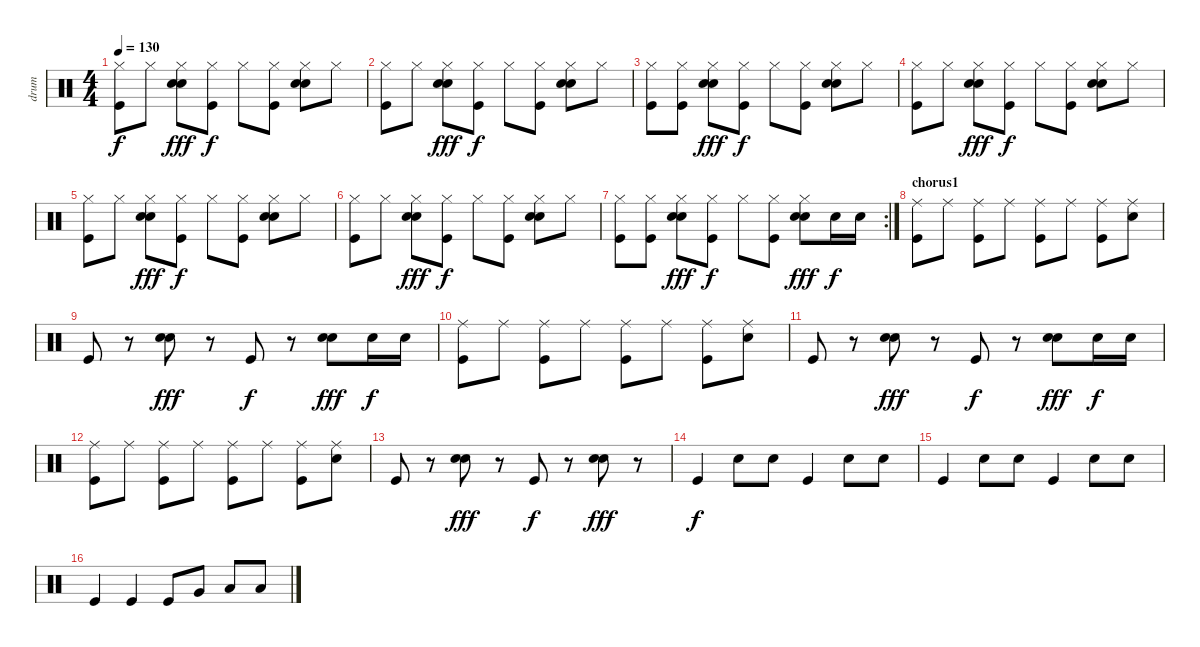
\track ("drum" "drum") {instrument percussion}
\staff {score}
\articulation defaults
\ts (4 4)
\tempo 130
\clef neutral
\ks c
("Hi-Hat (closed)" "Kick (hit)").8{dy f} "Hi-Hat (closed)".8 ("Hi-Hat (closed)" "Snare (hit) 2" "Snare (hit) 2").8{dy fff} ("Hi-Hat (closed)" "Kick (hit)").8{dy f} "Hi-Hat (closed)".8 ("Hi-Hat (closed)" "Kick (hit)").8 ("Hi-Hat (closed)" "Snare (hit) 2" "Snare (hit) 2").8 "Hi-Hat (closed)".8 |
("Hi-Hat (closed)" "Kick (hit)").8 "Hi-Hat (closed)".8 ("Hi-Hat (closed)" "Snare (hit) 2" "Snare (hit) 2").8{dy fff} ("Hi-Hat (closed)" "Kick (hit)").8{dy f} "Hi-Hat (closed)".8 ("Hi-Hat (closed)" "Kick (hit)").8 ("Hi-Hat (closed)" "Snare (hit) 2" "Snare (hit) 2").8 "Hi-Hat (closed)".8 |
("Hi-Hat (closed)" "Kick (hit)").8 ("Hi-Hat (closed)" "Kick (hit)").8 ("Hi-Hat (closed)" "Snare (hit) 2" "Snare (hit) 2").8{dy fff} ("Hi-Hat (closed)" "Kick (hit)").8{dy f} "Hi-Hat (closed)".8 ("Hi-Hat (closed)" "Kick (hit)").8 ("Hi-Hat (closed)" "Snare (hit) 2" "Snare (hit) 2").8 "Hi-Hat (closed)".8 |
("Hi-Hat (closed)" "Kick (hit)").8 "Hi-Hat (closed)".8 ("Hi-Hat (closed)" "Snare (hit) 2" "Snare (hit) 2").8{dy fff} ("Hi-Hat (closed)" "Kick (hit)").8{dy f} "Hi-Hat (closed)".8 ("Hi-Hat (closed)" "Kick (hit)").8 ("Hi-Hat (closed)" "Snare (hit) 2" "Snare (hit) 2").8 "Hi-Hat (closed)".8 |
("Hi-Hat (closed)" "Kick (hit)").8 "Hi-Hat (closed)".8 ("Hi-Hat (closed)" "Snare (hit) 2" "Snare (hit) 2").8{dy fff} ("Hi-Hat (closed)" "Kick (hit)").8{dy f} "Hi-Hat (closed)".8 ("Hi-Hat (closed)" "Kick (hit)").8 ("Hi-Hat (closed)" "Snare (hit) 2" "Snare (hit) 2").8 "Hi-Hat (closed)".8 |
("Hi-Hat (closed)" "Kick (hit)").8 "Hi-Hat (closed)".8 ("Hi-Hat (closed)" "Snare (hit) 2" "Snare (hit) 2").8{dy fff} ("Hi-Hat (closed)" "Kick (hit)").8{dy f} "Hi-Hat (closed)".8 ("Hi-Hat (closed)" "Kick (hit)").8 ("Hi-Hat (closed)" "Snare (hit) 2" "Snare (hit) 2").8 "Hi-Hat (closed)".8 |
\rc 2
("Hi-Hat (closed)" "Kick (hit)").8 ("Hi-Hat (closed)" "Kick (hit)").8 ("Hi-Hat (closed)" "Snare (hit) 2" "Snare (hit) 2").8{dy fff} ("Hi-Hat (closed)" "Kick (hit)").8{dy f} "Hi-Hat (closed)".8 ("Hi-Hat (closed)" "Kick (hit)").8 ("Hi-Hat (closed)" "Snare (hit) 2" "Snare (hit) 2").8{dy fff} "Snare (hit) 2".16{dy f} "Snare (hit) 2".16 |
\section ("" "chorus1")
("Ride (middle)" "Kick (hit)").8 "Ride (middle)".8 ("Ride (middle)" "Kick (hit)").8 "Ride (middle)".8 ("Ride (middle)" "Kick (hit)").8 "Ride (middle)".8 ("Ride (middle)" "Kick (hit)").8 ("Ride (middle)" "Snare (hit) 2").8 |
"Kick (hit)".8 r.8 ("Snare (hit) 2" "Snare (hit) 2").8{dy fff} r.8 "Kick (hit)".8{dy f} r.8 ("Snare (hit) 2" "Snare (hit) 2").8{dy fff} "Snare (hit) 2".16{dy f} "Snare (hit) 2".16 |
("Ride (middle)" "Kick (hit)").8 "Ride (middle)".8 ("Ride (middle)" "Kick (hit)").8 "Ride (middle)".8 ("Ride (middle)" "Kick (hit)").8 "Ride (middle)".8 ("Ride (middle)" "Kick (hit)").8 ("Ride (middle)" "Snare (hit) 2").8 |
"Kick (hit)".8 r.8 ("Snare (hit) 2" "Snare (hit) 2").8{dy fff} r.8 "Kick (hit)".8{dy f} r.8 ("Snare (hit) 2" "Snare (hit) 2").8{dy fff} "Snare (hit) 2".16{dy f} "Snare (hit) 2".16 |
("Ride (middle)" "Kick (hit)").8 "Ride (middle)".8 ("Ride (middle)" "Kick (hit)").8 "Ride (middle)".8 ("Ride (middle)" "Kick (hit)").8 "Ride (middle)".8 ("Ride (middle)" "Kick (hit)").8 ("Ride (middle)" "Snare (hit) 2").8 |
"Kick (hit)".8 r.8 ("Snare (hit) 2" "Snare (hit) 2").8{dy fff} r.8 "Kick (hit)".8{dy f} r.8 ("Snare (hit) 2" "Snare (hit) 2").8{dy fff} r.8 |
"Kick (hit)".4{dy f} "Snare (hit) 2".8 "Snare (hit) 2".8 "Kick (hit)".4 "Snare (hit) 2".8 "Snare (hit) 2".8 |
"Kick (hit)".4 "Snare (hit) 2".8 "Snare (hit) 2".8 "Kick (hit)".4 "Snare (hit) 2".8 "Snare (hit) 2".8 |
"Kick (hit)".4 "Kick (hit)".4 "Kick (hit)".8 "Very Low Tom (hit)".8 "Low Tom (hit)".8 "Low Tom (hit)".8
